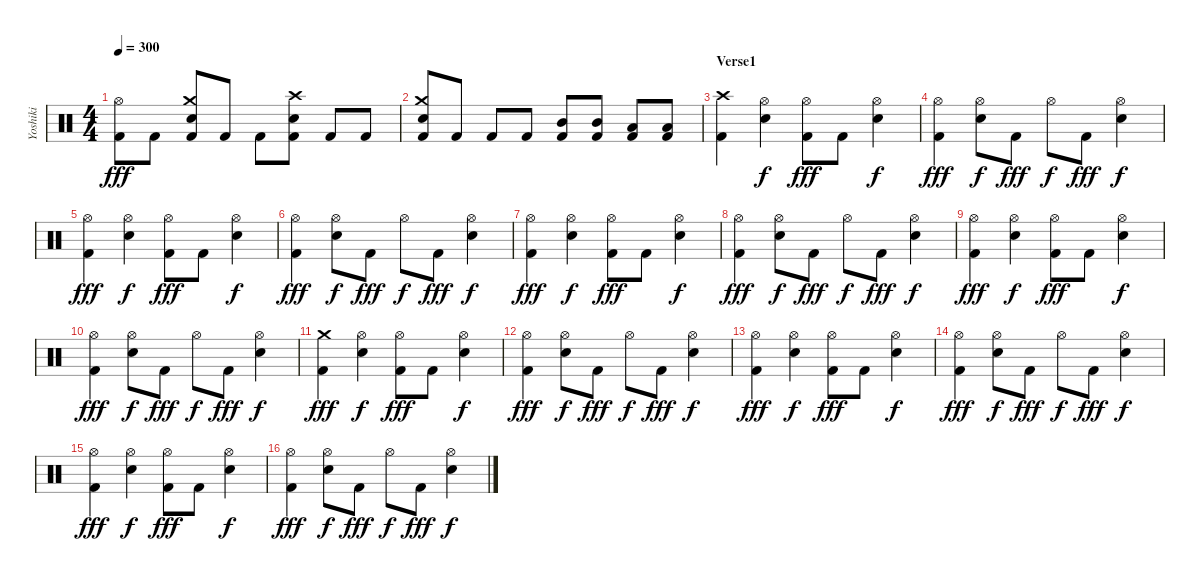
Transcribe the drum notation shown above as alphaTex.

\track ("Yoshiki" "Yoshiki") {instrument percussion}
\staff {score}
\articulation defaults
\ts (4 4)
\tempo 300
\clef neutral
\ks c
("Hi-Hat (open)" "Kick (hit) 2").8{dy fff} "Kick (hit) 2".8 ("Crash medium (hit)" "Snare (hit) 2" "Kick (hit) 2").8 "Kick (hit) 2".8 "Kick (hit) 2".8 ("Crash high (hit)" "Snare (hit) 2" "Kick (hit) 2").8 "Kick (hit) 2".8 "Kick (hit) 2".8 |
("Crash medium (hit)" "Snare (hit) 2" "Kick (hit) 2").8 "Kick (hit) 2".8 "Kick (hit) 2".8 "Kick (hit) 2".8 ("Mid Tom (hit)" "Kick (hit) 2").8 ("Mid Tom (hit)" "Kick (hit) 2").8 ("Low Tom (hit)" "Kick (hit) 2").8 ("Low Tom (hit)" "Kick (hit) 2").8 |
\section ("" "Verse1")
("Crash high (hit)" "Kick (hit) 2").4 ("Hi-Hat (open)" "Snare (hit) 2").4{dy f} ("Hi-Hat (open)" "Kick (hit) 2").8{dy fff} "Kick (hit) 2".8 ("Hi-Hat (open)" "Snare (hit) 2").4{dy f} |
("Hi-Hat (open)" "Kick (hit) 2").4{dy fff} ("Hi-Hat (open)" "Snare (hit) 2").8{dy f} "Kick (hit) 2".8{dy fff} "Hi-Hat (open)".8{dy f} "Kick (hit) 2".8{dy fff} ("Hi-Hat (open)" "Snare (hit) 2").4{dy f} |
("Hi-Hat (open)" "Kick (hit) 2").4{dy fff} ("Hi-Hat (open)" "Snare (hit) 2").4{dy f} ("Hi-Hat (open)" "Kick (hit) 2").8{dy fff} "Kick (hit) 2".8 ("Hi-Hat (open)" "Snare (hit) 2").4{dy f} |
("Hi-Hat (open)" "Kick (hit) 2").4{dy fff} ("Hi-Hat (open)" "Snare (hit) 2").8{dy f} "Kick (hit) 2".8{dy fff} "Hi-Hat (open)".8{dy f} "Kick (hit) 2".8{dy fff} ("Hi-Hat (open)" "Snare (hit) 2").4{dy f} |
("Hi-Hat (open)" "Kick (hit) 2").4{dy fff} ("Hi-Hat (open)" "Snare (hit) 2").4{dy f} ("Hi-Hat (open)" "Kick (hit) 2").8{dy fff} "Kick (hit) 2".8 ("Hi-Hat (open)" "Snare (hit) 2").4{dy f} |
("Hi-Hat (open)" "Kick (hit) 2").4{dy fff} ("Hi-Hat (open)" "Snare (hit) 2").8{dy f} "Kick (hit) 2".8{dy fff} "Hi-Hat (open)".8{dy f} "Kick (hit) 2".8{dy fff} ("Hi-Hat (open)" "Snare (hit) 2").4{dy f} |
("Hi-Hat (open)" "Kick (hit) 2").4{dy fff} ("Hi-Hat (open)" "Snare (hit) 2").4{dy f} ("Hi-Hat (open)" "Kick (hit) 2").8{dy fff} "Kick (hit) 2".8 ("Hi-Hat (open)" "Snare (hit) 2").4{dy f} |
("Hi-Hat (open)" "Kick (hit) 2").4{dy fff} ("Hi-Hat (open)" "Snare (hit) 2").8{dy f} "Kick (hit) 2".8{dy fff} "Hi-Hat (open)".8{dy f} "Kick (hit) 2".8{dy fff} ("Hi-Hat (open)" "Snare (hit) 2").4{dy f} |
("Crash medium (hit)" "Kick (hit) 2").4{dy fff} ("Hi-Hat (open)" "Snare (hit) 2").4{dy f} ("Hi-Hat (open)" "Kick (hit) 2").8{dy fff} "Kick (hit) 2".8 ("Hi-Hat (open)" "Snare (hit) 2").4{dy f} |
("Hi-Hat (open)" "Kick (hit) 2").4{dy fff} ("Hi-Hat (open)" "Snare (hit) 2").8{dy f} "Kick (hit) 2".8{dy fff} "Hi-Hat (open)".8{dy f} "Kick (hit) 2".8{dy fff} ("Hi-Hat (open)" "Snare (hit) 2").4{dy f} |
("Hi-Hat (open)" "Kick (hit) 2").4{dy fff} ("Hi-Hat (open)" "Snare (hit) 2").4{dy f} ("Hi-Hat (open)" "Kick (hit) 2").8{dy fff} "Kick (hit) 2".8 ("Hi-Hat (open)" "Snare (hit) 2").4{dy f} |
("Hi-Hat (open)" "Kick (hit) 2").4{dy fff} ("Hi-Hat (open)" "Snare (hit) 2").8{dy f} "Kick (hit) 2".8{dy fff} "Hi-Hat (open)".8{dy f} "Kick (hit) 2".8{dy fff} ("Hi-Hat (open)" "Snare (hit) 2").4{dy f} |
("Hi-Hat (open)" "Kick (hit) 2").4{dy fff} ("Hi-Hat (open)" "Snare (hit) 2").4{dy f} ("Hi-Hat (open)" "Kick (hit) 2").8{dy fff} "Kick (hit) 2".8 ("Hi-Hat (open)" "Snare (hit) 2").4{dy f} |
("Hi-Hat (open)" "Kick (hit) 2").4{dy fff} ("Hi-Hat (open)" "Snare (hit) 2").8{dy f} "Kick (hit) 2".8{dy fff} "Hi-Hat (open)".8{dy f} "Kick (hit) 2".8{dy fff} ("Hi-Hat (open)" "Snare (hit) 2").4{dy f}
